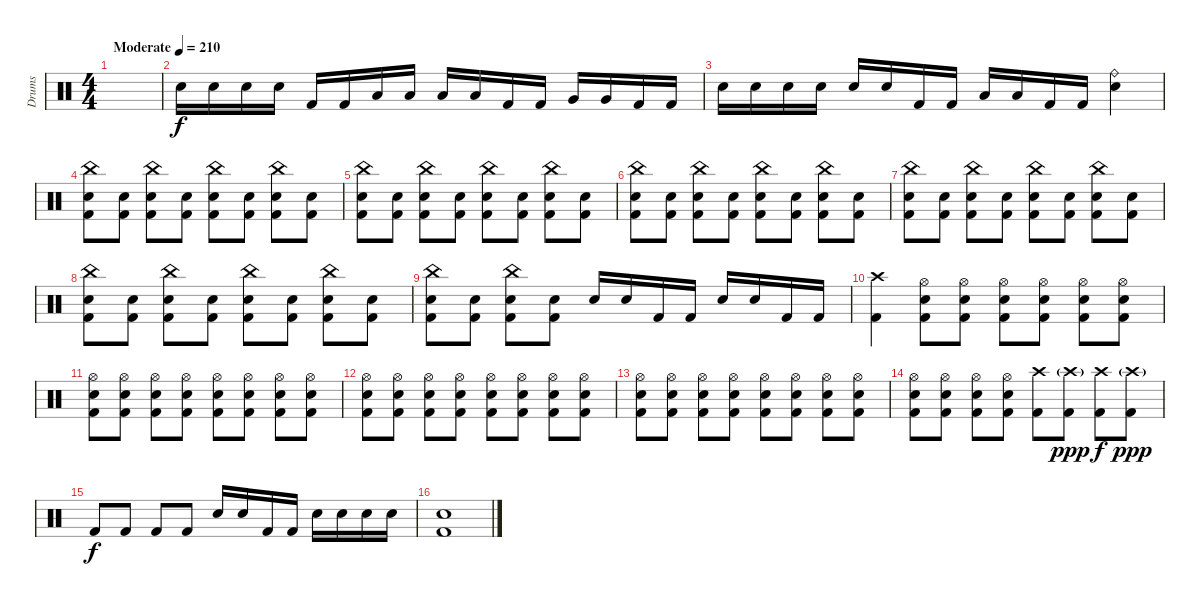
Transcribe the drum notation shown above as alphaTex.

\track ("Drums" "Drums") {instrument percussion}
\staff {score}
\articulation defaults
\ts (4 4)
\tempo (210 "Moderate")
\clef neutral
\ks c
|
"Electric Snare (hit)".16 "Electric Snare (hit)".16 "Electric Snare (hit)".16 "Electric Snare (hit)".16 "Kick (hit) 2".16 "Kick (hit) 2".16 "Low Tom (hit)".16 "Low Tom (hit)".16 "Low Tom (hit)".16 "Low Tom (hit)".16 "Kick (hit) 2".16 "Kick (hit) 2".16 "Very Low Tom (hit)".16 "Very Low Tom (hit)".16 "Kick (hit) 2".16 "Kick (hit) 2".16 |
"Electric Snare (hit)".16 "Electric Snare (hit)".16 "Electric Snare (hit)".16 "Electric Snare (hit)".16 "Electric Snare (hit)".16 "Electric Snare (hit)".16 "Kick (hit) 2".16 "Kick (hit) 2".16 "Low Floor Tom (hit)".16 "Low Floor Tom (hit)".16 "Kick (hit) 2".16 "Kick (hit) 2".16 ("Ride (bell)" "Electric Snare (hit)").4 |
("China (hit)" "Kick (hit) 2" "Electric Snare (hit)").8 ("Kick (hit) 2" "Electric Snare (hit)").8 ("China (hit)" "Kick (hit) 2" "Electric Snare (hit)").8 ("Kick (hit) 2" "Electric Snare (hit)").8 ("China (hit)" "Kick (hit) 2" "Electric Snare (hit)").8 ("Kick (hit) 2" "Electric Snare (hit)").8 ("China (hit)" "Kick (hit) 2" "Electric Snare (hit)").8 ("Kick (hit) 2" "Electric Snare (hit)").8 |
("China (hit)" "Kick (hit) 2" "Electric Snare (hit)").8 ("Kick (hit) 2" "Electric Snare (hit)").8 ("China (hit)" "Kick (hit) 2" "Electric Snare (hit)").8 ("Kick (hit) 2" "Electric Snare (hit)").8 ("China (hit)" "Kick (hit) 2" "Electric Snare (hit)").8 ("Kick (hit) 2" "Electric Snare (hit)").8 ("China (hit)" "Kick (hit) 2" "Electric Snare (hit)").8 ("Kick (hit) 2" "Electric Snare (hit)").8 |
("China (hit)" "Kick (hit) 2" "Electric Snare (hit)").8 ("Kick (hit) 2" "Electric Snare (hit)").8 ("China (hit)" "Kick (hit) 2" "Electric Snare (hit)").8 ("Kick (hit) 2" "Electric Snare (hit)").8 ("China (hit)" "Kick (hit) 2" "Electric Snare (hit)").8 ("Kick (hit) 2" "Electric Snare (hit)").8 ("China (hit)" "Kick (hit) 2" "Electric Snare (hit)").8 ("Kick (hit) 2" "Electric Snare (hit)").8 |
("China (hit)" "Kick (hit) 2" "Electric Snare (hit)").8 ("Kick (hit) 2" "Electric Snare (hit)").8 ("China (hit)" "Kick (hit) 2" "Electric Snare (hit)").8 ("Kick (hit) 2" "Electric Snare (hit)").8 ("China (hit)" "Kick (hit) 2" "Electric Snare (hit)").8 ("Kick (hit) 2" "Electric Snare (hit)").8 ("China (hit)" "Kick (hit) 2" "Electric Snare (hit)").8 ("Kick (hit) 2" "Electric Snare (hit)").8 |
("China (hit)" "Kick (hit) 2" "Electric Snare (hit)").8 ("Kick (hit) 2" "Electric Snare (hit)").8 ("China (hit)" "Kick (hit) 2" "Electric Snare (hit)").8 ("Kick (hit) 2" "Electric Snare (hit)").8 ("China (hit)" "Kick (hit) 2" "Electric Snare (hit)").8 ("Kick (hit) 2" "Electric Snare (hit)").8 ("China (hit)" "Kick (hit) 2" "Electric Snare (hit)").8 ("Kick (hit) 2" "Electric Snare (hit)").8 |
("China (hit)" "Kick (hit) 2" "Electric Snare (hit)").8 ("Kick (hit) 2" "Electric Snare (hit)").8 ("China (hit)" "Kick (hit) 2" "Electric Snare (hit)").8 ("Kick (hit) 2" "Electric Snare (hit)").8 "Electric Snare (hit)".16 "Electric Snare (hit)".16 "Kick (hit) 2".16 "Kick (hit) 2".16 "Electric Snare (hit)".16 "Electric Snare (hit)".16 "Kick (hit) 2".16 "Kick (hit) 2".16 |
("Crash high (hit)" "Kick (hit) 2").4 ("Hi-Hat (open)" "Kick (hit) 2" "Electric Snare (hit)").8 ("Hi-Hat (open)" "Kick (hit) 2" "Electric Snare (hit)").8 ("Hi-Hat (open)" "Kick (hit) 2" "Electric Snare (hit)").8 ("Hi-Hat (open)" "Kick (hit) 2" "Electric Snare (hit)").8 ("Hi-Hat (open)" "Kick (hit) 2" "Electric Snare (hit)").8 ("Hi-Hat (open)" "Kick (hit) 2" "Electric Snare (hit)").8 |
("Hi-Hat (open)" "Kick (hit) 2" "Electric Snare (hit)").8 ("Hi-Hat (open)" "Kick (hit) 2" "Electric Snare (hit)").8 ("Hi-Hat (open)" "Kick (hit) 2" "Electric Snare (hit)").8 ("Hi-Hat (open)" "Kick (hit) 2" "Electric Snare (hit)").8 ("Hi-Hat (open)" "Kick (hit) 2" "Electric Snare (hit)").8 ("Hi-Hat (open)" "Kick (hit) 2" "Electric Snare (hit)").8 ("Hi-Hat (open)" "Kick (hit) 2" "Electric Snare (hit)").8 ("Hi-Hat (open)" "Kick (hit) 2" "Electric Snare (hit)").8 |
("Hi-Hat (open)" "Kick (hit) 2" "Electric Snare (hit)").8 ("Hi-Hat (open)" "Kick (hit) 2" "Electric Snare (hit)").8 ("Hi-Hat (open)" "Kick (hit) 2" "Electric Snare (hit)").8 ("Hi-Hat (open)" "Kick (hit) 2" "Electric Snare (hit)").8 ("Hi-Hat (open)" "Kick (hit) 2" "Electric Snare (hit)").8 ("Hi-Hat (open)" "Kick (hit) 2" "Electric Snare (hit)").8 ("Hi-Hat (open)" "Kick (hit) 2" "Electric Snare (hit)").8 ("Hi-Hat (open)" "Kick (hit) 2" "Electric Snare (hit)").8 |
("Hi-Hat (open)" "Kick (hit) 2" "Electric Snare (hit)").8 ("Hi-Hat (open)" "Kick (hit) 2" "Electric Snare (hit)").8 ("Hi-Hat (open)" "Kick (hit) 2" "Electric Snare (hit)").8 ("Hi-Hat (open)" "Kick (hit) 2" "Electric Snare (hit)").8 ("Hi-Hat (open)" "Kick (hit) 2" "Electric Snare (hit)").8 ("Hi-Hat (open)" "Kick (hit) 2" "Electric Snare (hit)").8 ("Hi-Hat (open)" "Kick (hit) 2" "Electric Snare (hit)").8 ("Hi-Hat (open)" "Kick (hit) 2" "Electric Snare (hit)").8 |
("Hi-Hat (open)" "Kick (hit) 2" "Electric Snare (hit)").8 ("Hi-Hat (open)" "Kick (hit) 2" "Electric Snare (hit)").8 ("Hi-Hat (open)" "Kick (hit) 2" "Electric Snare (hit)").8 ("Hi-Hat (open)" "Kick (hit) 2" "Electric Snare (hit)").8 ("Crash high (hit)" "Kick (hit) 2").8 ("Crash high (hit)"{g} "Kick (hit) 2").8{dy ppp} ("Crash high (hit)" "Kick (hit) 2").8{dy f} ("Crash high (hit)"{g} "Kick (hit) 2").8{dy ppp} |
"Kick (hit) 2".8{dy f} "Kick (hit) 2".8 "Kick (hit) 2".8 "Kick (hit) 2".8 "Electric Snare (hit)".16 "Electric Snare (hit)".16 "Kick (hit) 2".16 "Kick (hit) 2".16 "Electric Snare (hit)".16 "Electric Snare (hit)".16 "Electric Snare (hit)".16 "Electric Snare (hit)".16 |
("Kick (hit) 2" "Electric Snare (hit)").1
